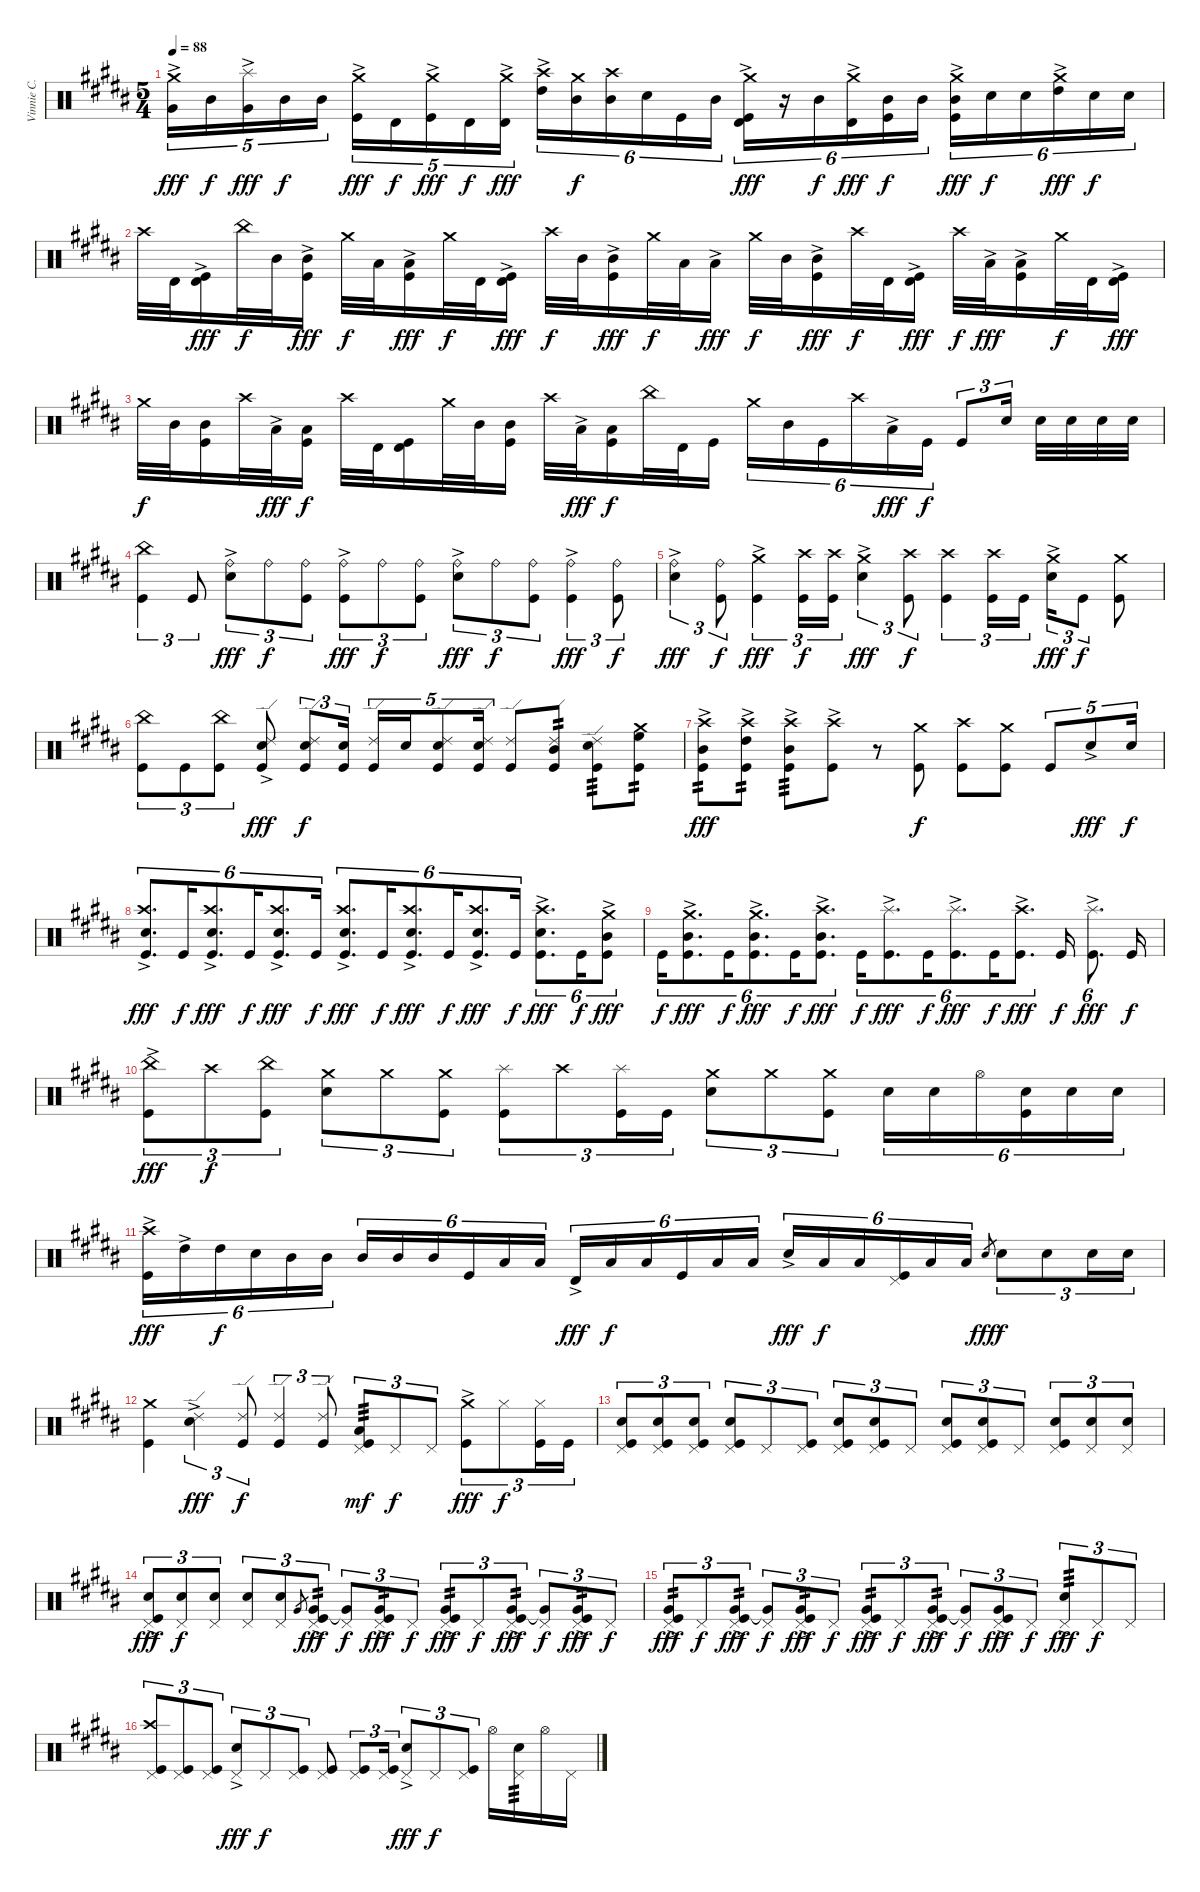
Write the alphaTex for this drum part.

\track ("Vinnie C." "Vinnie C.") {instrument percussion}
\staff {score}
\articulation defaults
\ts (5 4)
\tempo 88
\clef neutral
\ks b
("Crash medium (hit)"{ac} "Very Low Tom (hit)").16{tu (5 4) dy fff} "Mid Tom (hit)".16{tu (5 4) dy f} ("Splash (hit)"{ac} "Very Low Tom (hit)").16{tu (5 4) dy fff} "Mid Tom (hit)".16{tu (5 4) dy f} "Mid Tom (hit)".16{tu (5 4)} ("Crash medium (hit)"{ac} "Kick (hit)").16{tu (5 4) dy fff} "Timbale high (hit)".16{tu (5 4) dy f} ("Crash medium (hit)"{ac} "Kick (hit)").16{tu (5 4) dy fff} "Timbale high (hit)".16{tu (5 4) dy f} ("Crash medium (hit)"{ac} "Timbale high (hit)").16{tu (5 4) dy fff} ("Crash high (hit)"{ac} "High Tom (hit)").16{tu (6 4)} ("Crash medium (hit)" "Mid Tom (hit)").16{tu (6 4) dy f} ("Crash high (hit)" "Mid Tom (hit)").16{tu (6 4)} "Electric Snare (hit)".16{tu (6 4)} "Kick (hit)".16{tu (6 4)} "Mid Tom (hit)".16{tu (6 4)} ("Crash medium (hit)"{ac} "Timbale high (hit)" "Kick (hit)").16{tu (6 4) dy fff} r.16{tu (6 4)} "Mid Tom (hit)".16{tu (6 4) dy f} ("Crash medium (hit)"{ac} "Timbale high (hit)").16{tu (6 4) dy fff} ("Mid Tom (hit)" "Kick (hit)").16{tu (6 4) dy f} "Mid Tom (hit)".16{tu (6 4)} ("Crash medium (hit)"{ac} "Mid Tom (hit)" "Kick (hit)").16{tu (6 4) dy fff} "Electric Snare (hit)".16{tu (6 4) dy f} "Electric Snare (hit)".16{tu (6 4)} ("Crash medium (hit)"{ac} "High Tom (hit)").16{tu (6 4) dy fff} "Electric Snare (hit)".16{tu (6 4) dy f} "Electric Snare (hit)".16{tu (6 4)} |
"Crash high (hit)".32 "Timbale high (hit)".32 ("Timbale high (hit)"{ac} "Kick (hit)").16{dy fff} "China (hit)".32{dy f} "Mid Tom (hit)".32 ("Mid Tom (hit)"{ac} "Kick (hit)").16{dy fff} "Crash medium (hit)".32{dy f} "Low Tom (hit)".32 ("Low Tom (hit)"{ac} "Kick (hit)").16{dy fff} "Crash medium (hit)".32{dy f} "Timbale high (hit)".32 ("Timbale high (hit)"{ac} "Kick (hit)").16{dy fff} "Crash high (hit)".32{dy f} "Mid Tom (hit)".32 ("Mid Tom (hit)"{ac} "Kick (hit)").16{dy fff} "Crash medium (hit)".32{dy f} "Low Tom (hit)".32 "Low Tom (hit)"{ac}.16{dy fff} "Crash medium (hit)".32{dy f} "Mid Tom (hit)".32 ("Mid Tom (hit)"{ac} "Kick (hit)").16{dy fff} "Crash high (hit)".32{dy f} "Timbale high (hit)".32 ("Timbale high (hit)"{ac} "Kick (hit)").16{dy fff} "Crash high (hit)".32{dy f} "Low Tom (hit)"{ac}.32{dy fff} ("Low Tom (hit)"{ac} "Kick (hit)").16 "Crash medium (hit)".32{dy f} "Timbale high (hit)".32 ("Timbale high (hit)"{ac} "Kick (hit)").16{dy fff} |
"Crash medium (hit)".32{dy f} "Mid Tom (hit)".32 ("Mid Tom (hit)" "Kick (hit)").16 "Crash high (hit)".32 "Low Tom (hit)"{ac}.32{dy fff} ("Low Tom (hit)" "Kick (hit)").16{dy f} "Crash high (hit)".32 "Timbale high (hit)".32 ("Timbale high (hit)" "Kick (hit)").16 "Crash medium (hit)".32 "Mid Tom (hit)".32 ("Mid Tom (hit)" "Kick (hit)").16 "Crash high (hit)".32 "Low Tom (hit)"{ac}.32{dy fff} ("Low Tom (hit)" "Kick (hit)").16{dy f} "China (hit)".32 "Timbale high (hit)".32 "Kick (hit)".16 "Crash medium (hit)".16{tu (6 4)} "Mid Tom (hit)".16{tu (6 4)} "Kick (hit)".16{tu (6 4)} "Crash high (hit)".16{tu (6 4)} "Low Tom (hit)"{ac}.16{tu (6 4) dy fff} "Kick (hit)".16{tu (6 4) dy f} "Kick (hit)".8{tu (3 2)} "Electric Snare (hit)".16{tu (3 2)} "Electric Snare (hit)".32 "Electric Snare (hit)".32 "Electric Snare (hit)".32 "Electric Snare (hit)".32 |
("China (hit)" "Kick (hit)").4{tu (3 2)} "Kick (hit)".8{tu (3 2)} ("Ride (bell)"{ac} "Electric Snare (hit)").8{tu (3 2) dy fff} "Ride (bell)".8{tu (3 2) dy f} ("Ride (bell)" "Kick (hit)").8{tu (3 2)} ("Ride (bell)"{ac} "Kick (hit)").8{tu (3 2) dy fff} "Ride (bell)".8{tu (3 2) dy f} ("Ride (bell)" "Kick (hit)").8{tu (3 2)} ("Ride (bell)"{ac} "Electric Snare (hit)").8{tu (3 2) dy fff} "Ride (bell)".8{tu (3 2) dy f} ("Ride (bell)" "Kick (hit)").8{tu (3 2)} ("Ride (bell)"{ac} "Kick (hit)").4{tu (3 2) dy fff} ("Ride (bell)" "Kick (hit)").8{tu (3 2) dy f} |
("Ride (bell)"{ac} "Electric Snare (hit)").4{tu (3 2) dy fff} ("Ride (bell)" "Kick (hit)").8{tu (3 2) dy f} ("Crash medium (hit)"{ac} "Kick (hit)").4{tu (3 2) dy fff} ("Crash high (hit)" "Kick (hit)").16{tu (3 2) dy f} ("Crash high (hit)" "Kick (hit)").16{tu (3 2)} ("Crash medium (hit)"{ac} "Electric Snare (hit)").4{tu (3 2) dy fff} ("Crash high (hit)" "Kick (hit)").8{tu (3 2) dy f} ("Crash high (hit)" "Kick (hit)").4{tu (3 2)} ("Crash high (hit)" "Kick (hit)").16{tu (3 2)} "Kick (hit)".16{tu (3 2)} ("Crash medium (hit)"{ac} "Electric Snare (hit)").16{tu (3 2) dy fff} "Kick (hit)".8{tu (3 2) dy f} ("Crash medium (hit)" "Kick (hit)").8 |
("China (hit)" "Kick (hit)").8{tu (3 2)} "Kick (hit)".8{tu (3 2)} ("China (hit)" "Kick (hit)").8{tu (3 2)} ("Ride (edge) 2"{ac} "Electric Snare (hit)" "Kick (hit)").8{dy fff} ("Ride (edge) 2" "Electric Snare (hit)" "Kick (hit)").8{tu (3 2) dy f} ("Electric Snare (hit)" "Kick (hit)").16{tu (3 2)} ("Ride (edge) 2" "Kick (hit)").16{tu (5 4)} "Electric Snare (hit)".16{tu (5 4)} ("Ride (edge) 2" "Electric Snare (hit)" "Kick (hit)").8{tu (5 4)} ("Ride (edge) 2" "Electric Snare (hit)" "Kick (hit)").16{tu (5 4)} ("Ride (edge) 2" "Kick (hit)").8 ("Ride (edge) 2" "Mid Tom (hit)" "Kick (hit)").8{tp 2} ("Ride (edge) 2" "Electric Snare (hit)" "Kick (hit)").8{tp 3} ("Crash medium (hit)" "High Floor Tom (hit)" "Kick (hit)").8{tp 2} |
("Crash high (hit)" "Mid Tom (hit)" "Kick (hit)"{ac}).8{tp 2 dy fff} ("Crash high (hit)" "High Tom (hit)" "Kick (hit)"{ac}).8{tp 2} ("Crash high (hit)" "Mid Tom (hit)" "Kick (hit)"{ac}).8{tp 3} ("Crash high (hit)" "Kick (hit)"{ac}).8 r.8 ("Crash medium (hit)" "Kick (hit)").8{dy f} ("Crash high (hit)" "Kick (hit)").8 ("Crash medium (hit)" "Kick (hit)").8 "Kick (hit)".8{tu (5 4)} "Electric Snare (hit)"{ac}.8{tu (5 4) dy fff} "Electric Snare (hit)".16{tu (5 4) dy f} |
("Crash high (hit)"{ac} "Electric Snare (hit)" "Kick (hit)").8{d tu (6 4) dy fff} "Kick (hit)".16{tu (6 4) dy f} ("Crash high (hit)"{ac} "Electric Snare (hit)" "Kick (hit)").8{d tu (6 4) dy fff} "Kick (hit)".16{tu (6 4) dy f} ("Crash high (hit)"{ac} "Electric Snare (hit)" "Kick (hit)").8{d tu (6 4) dy fff} "Kick (hit)".16{tu (6 4) dy f} ("Crash high (hit)"{ac} "Electric Snare (hit)" "Kick (hit)").8{d tu (6 4) dy fff} "Kick (hit)".16{tu (6 4) dy f} ("Crash high (hit)"{ac} "Electric Snare (hit)" "Kick (hit)").8{d tu (6 4) dy fff} "Kick (hit)".16{tu (6 4) dy f} ("Crash high (hit)"{ac} "Electric Snare (hit)" "Kick (hit)").8{d tu (6 4) dy fff} "Kick (hit)".16{tu (6 4) dy f} ("Crash high (hit)"{ac} "Electric Snare (hit)" "Kick (hit)").8{d tu (6 4) dy fff} "Kick (hit)".16{tu (6 4) dy f} ("Crash medium (hit)"{ac} "Mid Tom (hit)" "Kick (hit)").8{tu (6 4) dy fff} |
"Kick (hit)".16{tu (6 4) dy f} ("Crash medium (hit)"{ac} "Mid Tom (hit)" "Kick (hit)").8{d tu (6 4) dy fff} "Kick (hit)".16{tu (6 4) dy f} ("Crash medium (hit)"{ac} "Mid Tom (hit)" "Kick (hit)").8{d tu (6 4) dy fff} "Kick (hit)".16{tu (6 4) dy f} ("Crash high (hit)"{ac} "Mid Tom (hit)" "Kick (hit)").8{d tu (6 4) dy fff} "Kick (hit)".16{tu (6 4) dy f} ("Splash (hit)"{ac} "Kick (hit)").8{d tu (6 4) dy fff} "Kick (hit)".16{tu (6 4) dy f} ("Splash (hit)"{ac} "Kick (hit)").8{d tu (6 4) dy fff} "Kick (hit)".16{tu (6 4) dy f} ("Crash high (hit)"{ac} "Kick (hit)").8{d tu (6 4) dy fff} "Kick (hit)".16{dy f} ("Splash (hit)"{ac} "Kick (hit)").8{d tu (6 4) dy fff} "Kick (hit)".16{dy f} |
("China (hit)"{ac} "Kick (hit)").8{tu (3 2) dy fff} "Crash high (hit)".8{tu (3 2) dy f} ("China (hit)" "Kick (hit)").8{tu (3 2)} ("Crash medium (hit)" "Electric Snare (hit)").8{tu (3 2)} "Crash medium (hit)".8{tu (3 2)} ("Crash medium (hit)" "Kick (hit)").8{tu (3 2)} ("Splash (hit)" "Kick (hit)").8{tu (3 2)} "Crash high (hit)".8{tu (3 2)} ("Splash (hit)" "Kick (hit)").16{tu (3 2)} "Kick (hit)".16{tu (3 2)} ("Crash medium (hit)" "Electric Snare (hit)").8{tu (3 2)} "Crash medium (hit)".8{tu (3 2)} ("Crash medium (hit)" "Kick (hit)").8{tu (3 2)} "Electric Snare (hit)".16{tu (6 4)} "Electric Snare (hit)".16{tu (6 4)} "Hi-Hat (open)".16{tu (6 4)} ("Electric Snare (hit)" "Kick (hit)").16{tu (6 4)} "Electric Snare (hit)".16{tu (6 4)} "Electric Snare (hit)".16{tu (6 4)} |
("Crash high (hit)"{ac} "Kick (hit)").16{tu (6 4) dy fff} "High Tom (hit)"{ac}.16{tu (6 4)} "High Tom (hit)".16{tu (6 4) dy f} "Electric Snare (hit)".16{tu (6 4)} "Mid Tom (hit)".16{tu (6 4)} "Mid Tom (hit)".16{tu (6 4)} "Mid Tom (hit)".16{tu (6 4)} "Mid Tom (hit)".16{tu (6 4)} "Mid Tom (hit)".16{tu (6 4)} "Kick (hit)".16{tu (6 4)} "Low Tom (hit)".16{tu (6 4)} "Low Tom (hit)".16{tu (6 4)} "Timbale high (hit)"{ac}.16{tu (6 4) dy fff} "Low Tom (hit)".16{tu (6 4) dy f} "Low Tom (hit)".16{tu (6 4)} "Kick (hit)".16{tu (6 4)} "Low Tom (hit)".16{tu (6 4)} "Low Tom (hit)".16{tu (6 4)} "Electric Snare (hit)"{ac}.16{tu (6 4) dy fff} "Low Tom (hit)".16{tu (6 4) dy f} "Low Tom (hit)".16{tu (6 4)} ("Pedal Hi-Hat (hit)" "Kick (hit)").16{tu (6 4)} "Low Tom (hit)".16{tu (6 4)} "Low Tom (hit)".16{tu (6 4)} "Electric Snare (hit)".8{gr dy fff} "Electric Snare (hit)".8{tu (3 2) dy f} "Electric Snare (hit)".8{tu (3 2)} "Electric Snare (hit)".16{tu (3 2)} "Electric Snare (hit)".16{tu (3 2)} |
("Crash medium (hit)" "Kick (hit)").4 ("Ride (edge) 2"{ac} "Electric Snare (hit)").4{tu (3 2) dy fff} ("Ride (edge) 2" "Kick (hit)").8{tu (3 2) dy f} ("Ride (edge) 2" "Kick (hit)").4{tu (3 2)} ("Ride (edge) 2" "Kick (hit)").8{tu (3 2)} ("Pedal Hi-Hat (hit)" "Low Tom (hit)" "Kick (hit)").8{tu (3 2) tp 3 dy mf} "Pedal Hi-Hat (hit)".8{tu (3 2) dy f} "Pedal Hi-Hat (hit)".8{tu (3 2)} ("Crash medium (hit)"{ac} "Kick (hit)").8{tu (3 2) dy fff} "Hi-Hat (closed)".8{tu (3 2) dy f} ("Hi-Hat (closed)" "Kick (hit)").16{tu (3 2)} "Kick (hit)".16{tu (3 2)} |
("Pedal Hi-Hat (hit)" "Electric Snare (hit)" "Kick (hit)").8{tu (3 2)} ("Pedal Hi-Hat (hit)" "Electric Snare (hit)" "Kick (hit)").8{tu (3 2)} ("Pedal Hi-Hat (hit)" "Electric Snare (hit)" "Kick (hit)").8{tu (3 2)} ("Pedal Hi-Hat (hit)" "Electric Snare (hit)" "Kick (hit)").8{tu (3 2)} "Pedal Hi-Hat (hit)".8{tu (3 2)} ("Pedal Hi-Hat (hit)" "Kick (hit)").8{tu (3 2)} ("Pedal Hi-Hat (hit)" "Electric Snare (hit)" "Kick (hit)").8{tu (3 2)} ("Pedal Hi-Hat (hit)" "Electric Snare (hit)" "Kick (hit)").8{tu (3 2)} "Pedal Hi-Hat (hit)".8{tu (3 2)} ("Pedal Hi-Hat (hit)" "Electric Snare (hit)" "Kick (hit)").8{tu (3 2)} ("Pedal Hi-Hat (hit)" "Electric Snare (hit)" "Kick (hit)").8{tu (3 2)} "Pedal Hi-Hat (hit)".8{tu (3 2)} ("Pedal Hi-Hat (hit)" "Electric Snare (hit)" "Kick (hit)").8{tu (3 2)} ("Pedal Hi-Hat (hit)" "Electric Snare (hit)").8{tu (3 2)} ("Pedal Hi-Hat (hit)" "Electric Snare (hit)").8{tu (3 2)} |
("Pedal Hi-Hat (hit)" "Electric Snare (hit)" "Kick (hit)"{ac}).8{tu (3 2) dy fff} ("Pedal Hi-Hat (hit)" "Electric Snare (hit)").8{tu (3 2) dy f} ("Pedal Hi-Hat (hit)" "Electric Snare (hit)").8{tu (3 2)} ("Pedal Hi-Hat (hit)" "Electric Snare (hit)").8{tu (3 2)} ("Pedal Hi-Hat (hit)" "Electric Snare (hit)").8{tu (3 2)} "Very Low Tom (hit)".8{gr} ("Pedal Hi-Hat (hit)" "Very Low Tom (hit)"{ac} "Kick (hit)"{ac}).8{tu (3 2) tp 2 dy fff} ("Pedal Hi-Hat (hit)" "Very Low Tom (hit)"{t}).8{tu (3 2) dy f} ("Pedal Hi-Hat (hit)" "Very Low Tom (hit)" "Kick (hit)"{ac}).8{tu (3 2) tp 2 dy fff} "Pedal Hi-Hat (hit)".8{tu (3 2) dy f} ("Pedal Hi-Hat (hit)" "Very Low Tom (hit)" "Kick (hit)"{ac}).8{tu (3 2) tp 2 dy fff} "Pedal Hi-Hat (hit)".8{tu (3 2) dy f} ("Pedal Hi-Hat (hit)" "Very Low Tom (hit)" "Kick (hit)"{ac}).8{tu (3 2) tp 2 dy fff} ("Pedal Hi-Hat (hit)" "Very Low Tom (hit)"{t}).8{tu (3 2) dy f} ("Pedal Hi-Hat (hit)" "Very Low Tom (hit)" "Kick (hit)"{ac}).8{tu (3 2) tp 2 dy fff} "Pedal Hi-Hat (hit)".8{tu (3 2) dy f} |
("Pedal Hi-Hat (hit)" "Very Low Tom (hit)" "Kick (hit)"{ac}).8{tu (3 2) tp 2 dy fff} "Pedal Hi-Hat (hit)".8{tu (3 2) dy f} ("Pedal Hi-Hat (hit)" "Very Low Tom (hit)" "Kick (hit)"{ac}).8{tu (3 2) tp 2 dy fff} ("Pedal Hi-Hat (hit)" "Very Low Tom (hit)"{t}).8{tu (3 2) dy f} ("Pedal Hi-Hat (hit)" "Very Low Tom (hit)" "Kick (hit)"{ac}).8{tu (3 2) tp 2 dy fff} "Pedal Hi-Hat (hit)".8{tu (3 2) dy f} ("Pedal Hi-Hat (hit)" "Very Low Tom (hit)" "Kick (hit)"{ac}).8{tu (3 2) tp 2 dy fff} "Pedal Hi-Hat (hit)".8{tu (3 2) dy f} ("Pedal Hi-Hat (hit)" "Very Low Tom (hit)" "Kick (hit)"{ac}).8{tu (3 2) tp 2 dy fff} ("Pedal Hi-Hat (hit)" "Very Low Tom (hit)"{t}).8{tu (3 2) dy f} ("Pedal Hi-Hat (hit)" "Very Low Tom (hit)" "Kick (hit)"{ac}).8{tu (3 2) dy fff} "Pedal Hi-Hat (hit)".8{tu (3 2) dy f} ("Pedal Hi-Hat (hit)" "Electric Snare (hit)"{ac}).8{tu (3 2) tp 3 dy fff} "Pedal Hi-Hat (hit)".8{tu (3 2) dy f} "Pedal Hi-Hat (hit)".8{tu (3 2)} |
("Crash high (hit)" "Pedal Hi-Hat (hit)" "Kick (hit)").8{tu (3 2)} ("Pedal Hi-Hat (hit)" "Kick (hit)").8{tu (3 2)} ("Pedal Hi-Hat (hit)" "Kick (hit)").8{tu (3 2)} ("Pedal Hi-Hat (hit)"{ac} "Electric Snare (hit)").8{tu (3 2) dy fff} "Pedal Hi-Hat (hit)".8{tu (3 2) dy f} ("Pedal Hi-Hat (hit)" "Kick (hit)").8{tu (3 2)} ("Pedal Hi-Hat (hit)" "Kick (hit)").8 ("Pedal Hi-Hat (hit)" "Kick (hit)").8{tu (3 2)} ("Pedal Hi-Hat (hit)" "Kick (hit)").16{tu (3 2)} ("Pedal Hi-Hat (hit)" "Electric Snare (hit)"{ac}).8{tu (3 2) dy fff} "Pedal Hi-Hat (hit)".8{tu (3 2) dy f} ("Pedal Hi-Hat (hit)" "Kick (hit)").8{tu (3 2)} "Hi-Hat (open)".16 ("Pedal Hi-Hat (hit)" "Electric Snare (hit)").16{tp 3} "Hi-Hat (open)".16 "Pedal Hi-Hat (hit)".16
